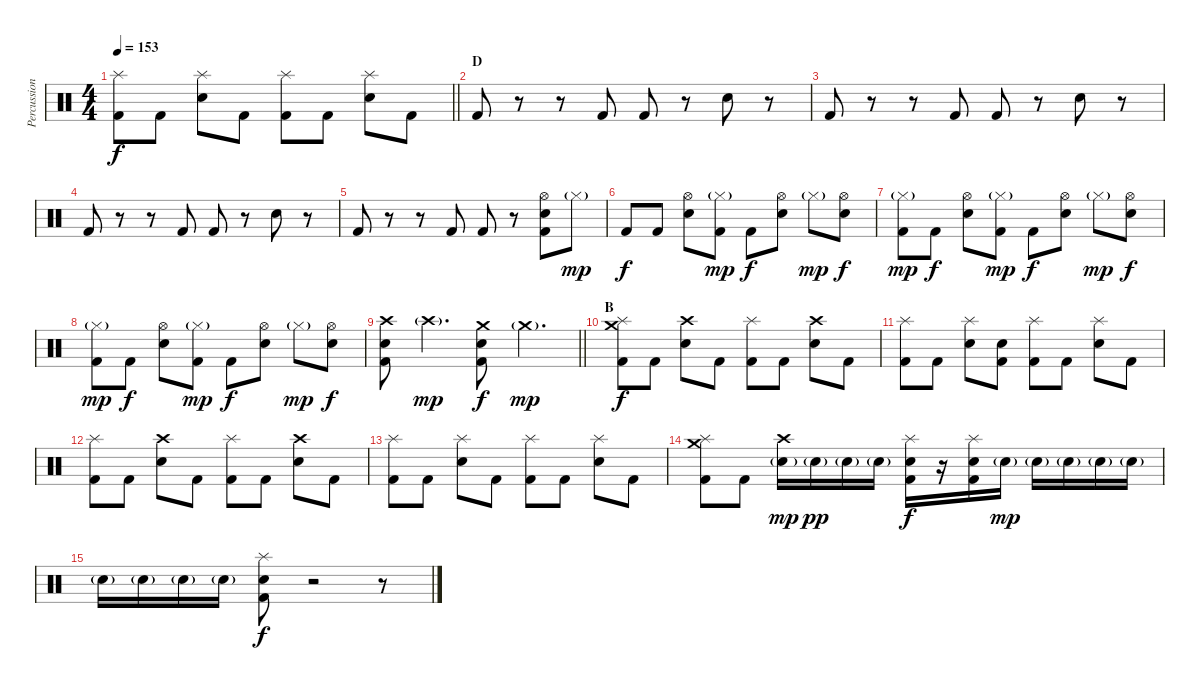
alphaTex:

\track ("Percussion" "Percussion") {instrument percussion}
\staff {score}
\articulation defaults
\ts (4 4)
\tempo 153
\clef neutral
\barLineRight lightlight
\ks c
("Splash (hit)" "Kick (hit) 2").8{dy f} "Kick (hit) 2".8 ("Splash (hit)" "Electric Snare (hit)").8 "Kick (hit) 2".8 ("Splash (hit)" "Kick (hit) 2").8 "Kick (hit) 2".8 ("Splash (hit)" "Electric Snare (hit)").8 "Kick (hit) 2".8 |
\section ("" "D")
"Kick (hit) 2".8 r.8 r.8 "Kick (hit) 2".8 "Kick (hit) 2".8 r.8 "Electric Snare (hit)".8 r.8 |
"Kick (hit) 2".8 r.8 r.8 "Kick (hit) 2".8 "Kick (hit) 2".8 r.8 "Electric Snare (hit)".8 r.8 |
"Kick (hit) 2".8 r.8 r.8 "Kick (hit) 2".8 "Kick (hit) 2".8 r.8 "Electric Snare (hit)".8 r.8 |
"Kick (hit) 2".8 r.8 r.8 "Kick (hit) 2".8 "Kick (hit) 2".8 r.8 ("Hi-Hat (open)" "Electric Snare (hit)" "Kick (hit) 2").8 "Hi-Hat (closed)"{g}.8{dy mp} |
"Kick (hit) 2".8{dy f} "Kick (hit) 2".8 ("Hi-Hat (open)" "Electric Snare (hit)").8 ("Hi-Hat (closed)"{g} "Kick (hit) 2").8{dy mp} "Kick (hit) 2".8{dy f} ("Hi-Hat (open)" "Electric Snare (hit)").8 "Hi-Hat (closed)"{g}.8{dy mp} ("Hi-Hat (open)" "Electric Snare (hit)").8{dy f} |
("Hi-Hat (closed)"{g} "Kick (hit) 2").8{dy mp} "Kick (hit) 2".8{dy f} ("Hi-Hat (open)" "Electric Snare (hit)").8 ("Hi-Hat (closed)"{g} "Kick (hit) 2").8{dy mp} "Kick (hit) 2".8{dy f} ("Hi-Hat (open)" "Electric Snare (hit)").8 "Hi-Hat (closed)"{g}.8{dy mp} ("Hi-Hat (open)" "Electric Snare (hit)").8{dy f} |
("Hi-Hat (closed)"{g} "Kick (hit) 2").8{dy mp} "Kick (hit) 2".8{dy f} ("Hi-Hat (open)" "Electric Snare (hit)").8 ("Hi-Hat (closed)"{g} "Kick (hit) 2").8{dy mp} "Kick (hit) 2".8{dy f} ("Hi-Hat (open)" "Electric Snare (hit)").8 "Hi-Hat (closed)"{g}.8{dy mp} ("Hi-Hat (open)" "Electric Snare (hit)").8{dy f} |
\barLineRight lightlight
("Crash high (hit)" "Electric Snare (hit)" "Kick (hit) 2").8 "Crash high (hit)"{g}.4{d dy mp} ("Crash medium (hit)" "Electric Snare (hit)" "Kick (hit) 2").8{dy f} "Crash medium (hit)"{g}.4{d dy mp} |
\section ("" "B")
("Splash (hit)" "Crash medium (hit)" "Kick (hit) 2").8{dy f} "Kick (hit) 2".8 ("Crash high (hit)" "Electric Snare (hit)").8 "Kick (hit) 2".8 ("Splash (hit)" "Kick (hit) 2").8 "Kick (hit) 2".8 ("Crash high (hit)" "Electric Snare (hit)").8 "Kick (hit) 2".8 |
("Splash (hit)" "Kick (hit) 2").8 "Kick (hit) 2".8 ("Splash (hit)" "Electric Snare (hit)").8 ("Electric Snare (hit)" "Kick (hit) 2").8 ("Splash (hit)" "Kick (hit) 2").8 "Kick (hit) 2".8 ("Splash (hit)" "Electric Snare (hit)").8 "Kick (hit) 2".8 |
("Splash (hit)" "Kick (hit) 2").8 "Kick (hit) 2".8 ("Crash high (hit)" "Electric Snare (hit)").8 "Kick (hit) 2".8 ("Splash (hit)" "Kick (hit) 2").8 "Kick (hit) 2".8 ("Crash high (hit)" "Electric Snare (hit)").8 "Kick (hit) 2".8 |
("Splash (hit)" "Kick (hit) 2").8 "Kick (hit) 2".8 ("Splash (hit)" "Electric Snare (hit)").8 "Kick (hit) 2".8 ("Splash (hit)" "Kick (hit) 2").8 "Kick (hit) 2".8 ("Splash (hit)" "Electric Snare (hit)").8 "Kick (hit) 2".8 |
("Splash (hit)" "Crash medium (hit)" "Kick (hit) 2").8 "Kick (hit) 2".8 ("Crash high (hit)" "Electric Snare (hit)"{g}).16{dy mp} "Electric Snare (hit)"{g}.16{dy pp} "Electric Snare (hit)"{g}.16 "Electric Snare (hit)"{g}.16 ("Splash (hit)" "Electric Snare (hit)" "Kick (hit) 2").16{dy f} r.16 ("Splash (hit)" "Electric Snare (hit)" "Kick (hit) 2").16 "Electric Snare (hit)"{g}.16{dy mp} "Electric Snare (hit)"{g}.16 "Electric Snare (hit)"{g}.16 "Electric Snare (hit)"{g}.16 "Electric Snare (hit)"{g}.16 |
"Electric Snare (hit)"{g}.16 "Electric Snare (hit)"{g}.16 "Electric Snare (hit)"{g}.16 "Electric Snare (hit)"{g}.16 ("Splash (hit)" "Electric Snare (hit)" "Kick (hit) 2").8{dy f} r.2 r.8
